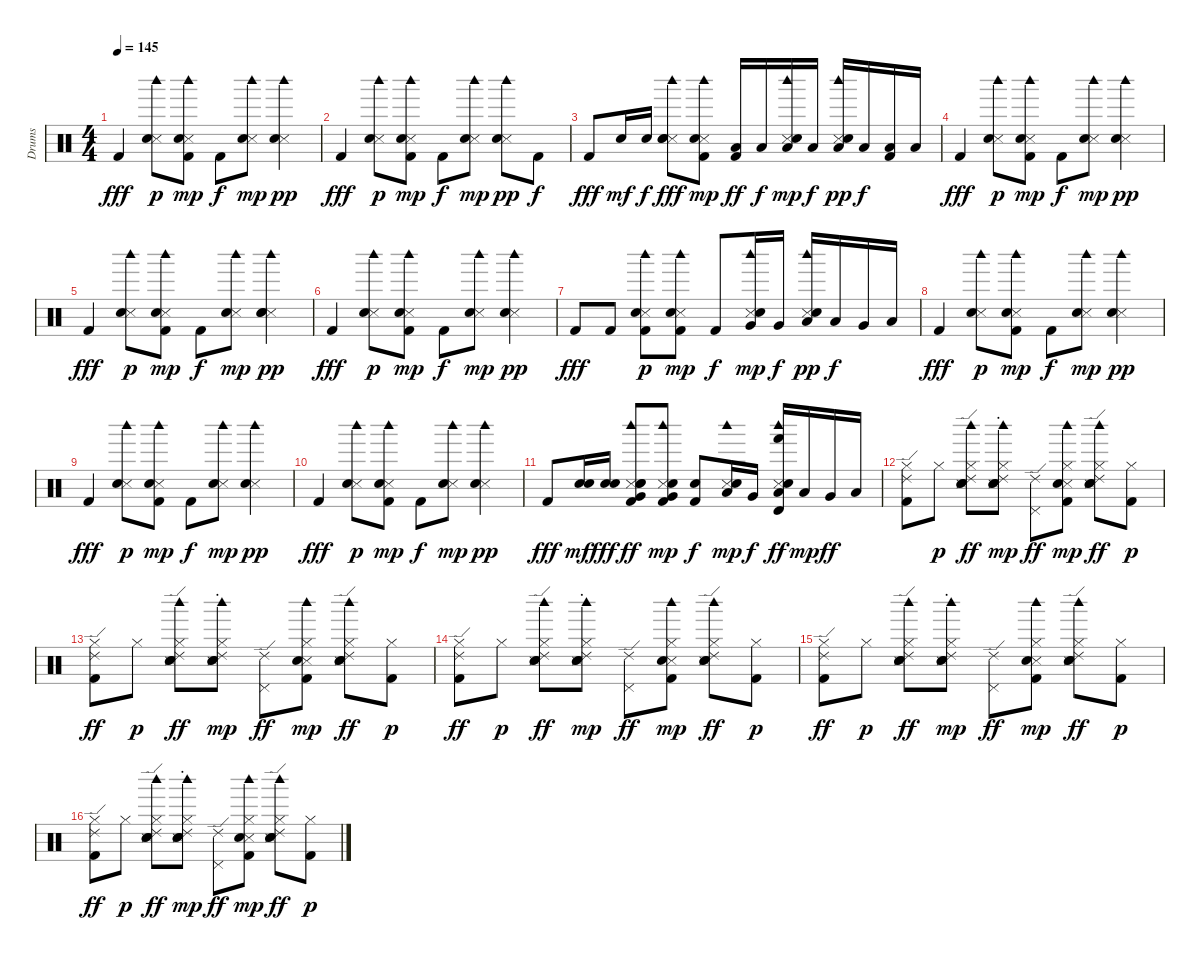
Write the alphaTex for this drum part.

\track ("Drums" "Drums") {instrument percussion}
\staff {score}
\articulation defaults
\ts (4 4)
\tempo 145
\clef neutral
\ks c "Kick (hit) 2".4{dy fff}
("Snare (side stick) 3" "Hand Clap (hit)" "Woodblock high (hit)").8{dy p} ("Kick (hit) 2" "Snare (side stick) 3" "Hand Clap (hit)" "Woodblock high (hit)").8{dy mp} "Kick (hit) 2".8{dy f} ("Snare (side stick) 3" "Hand Clap (hit)" "Woodblock high (hit)").8{dy mp} ("Snare (side stick) 3" "Hand Clap (hit)" "Woodblock high (hit)").4{dy pp} |
"Kick (hit) 2".4{dy fff} ("Snare (side stick) 3" "Hand Clap (hit)" "Woodblock high (hit)").8{dy p} ("Kick (hit) 2" "Snare (side stick) 3" "Hand Clap (hit)" "Woodblock high (hit)").8{dy mp} "Kick (hit) 2".8{dy f} ("Snare (side stick) 3" "Hand Clap (hit)" "Woodblock high (hit)").8{dy mp} ("Snare (side stick) 3" "Hand Clap (hit)" "Woodblock high (hit)").8{dy pp} "Kick (hit) 2".8{dy f} |
"Kick (hit) 2".8{dy fff} "Electric Snare (hit)".16{dy mf} "Electric Snare (hit)".16{dy f} ("Snare (side stick) 3" "Hand Clap (hit)" "Electric Snare (hit)" "Woodblock high (hit)").8{dy fff} ("Kick (hit) 2" "Snare (side stick) 3" "Hand Clap (hit)" "Woodblock high (hit)").8{dy mp} ("Kick (hit) 2" "Low Tom (hit)").16{dy ff} "Low Tom (hit)".16{dy f} ("Snare (side stick) 3" "Hand Clap (hit)" "Low Tom (hit)" "Woodblock high (hit)").16{dy mp} "Low Tom (hit)".16{dy f} ("Snare (side stick) 3" "Hand Clap (hit)" "Low Tom (hit)" "Woodblock high (hit)").16{dy pp} "Low Tom (hit)".16{dy f} ("Kick (hit) 2" "Low Tom (hit)").16 "Low Tom (hit)".16 |
"Kick (hit) 2".4{dy fff} ("Snare (side stick) 3" "Hand Clap (hit)" "Woodblock high (hit)").8{dy p} ("Kick (hit) 2" "Snare (side stick) 3" "Hand Clap (hit)" "Woodblock high (hit)").8{dy mp} "Kick (hit) 2".8{dy f} ("Snare (side stick) 3" "Hand Clap (hit)" "Woodblock high (hit)").8{dy mp} ("Snare (side stick) 3" "Hand Clap (hit)" "Woodblock high (hit)").4{dy pp} |
"Kick (hit) 2".4{dy fff} ("Snare (side stick) 3" "Hand Clap (hit)" "Woodblock high (hit)").8{dy p} ("Kick (hit) 2" "Snare (side stick) 3" "Hand Clap (hit)" "Woodblock high (hit)").8{dy mp} "Kick (hit) 2".8{dy f} ("Snare (side stick) 3" "Hand Clap (hit)" "Woodblock high (hit)").8{dy mp} ("Snare (side stick) 3" "Hand Clap (hit)" "Electric Snare (hit)" "Woodblock high (hit)").4{dy pp} |
"Kick (hit) 2".4{dy fff} ("Snare (side stick) 3" "Hand Clap (hit)" "Woodblock high (hit)").8{dy p} ("Kick (hit) 2" "Snare (side stick) 3" "Hand Clap (hit)" "Woodblock high (hit)").8{dy mp} "Kick (hit) 2".8{dy f} ("Snare (side stick) 3" "Hand Clap (hit)" "Woodblock high (hit)").8{dy mp} ("Snare (side stick) 3" "Hand Clap (hit)" "Woodblock high (hit)").4{dy pp} |
"Kick (hit) 2".8{dy fff} "Kick (hit) 2".8 ("Kick (hit) 2" "Snare (side stick) 3" "Hand Clap (hit)" "Woodblock high (hit)").8{dy p} ("Kick (hit) 2" "Snare (side stick) 3" "Hand Clap (hit)" "Woodblock high (hit)").8{dy mp} "Kick (hit) 2".8{dy f} ("Snare (side stick) 3" "Hand Clap (hit)" "Very Low Tom (hit)" "Woodblock high (hit)").16{dy mp} "Very Low Tom (hit)".16{dy f} ("Snare (side stick) 3" "Hand Clap (hit)" "Low Tom (hit)" "Woodblock high (hit)").16{dy pp} "Low Tom (hit)".16{dy f} "Very Low Tom (hit)".16 "Low Floor Tom (hit)".16 |
"Kick (hit) 2".4{dy fff} ("Snare (side stick) 3" "Hand Clap (hit)" "Woodblock high (hit)").8{dy p} ("Kick (hit) 2" "Snare (side stick) 3" "Hand Clap (hit)" "Woodblock high (hit)").8{dy mp} "Kick (hit) 2".8{dy f} ("Snare (side stick) 3" "Hand Clap (hit)" "Woodblock high (hit)").8{dy mp} ("Snare (side stick) 3" "Hand Clap (hit)" "Woodblock high (hit)").4{dy pp} |
"Kick (hit) 2".4{dy fff} ("Snare (side stick) 3" "Hand Clap (hit)" "Woodblock high (hit)").8{dy p} ("Kick (hit) 2" "Snare (side stick) 3" "Hand Clap (hit)" "Woodblock high (hit)").8{dy mp} "Kick (hit) 2".8{dy f} ("Snare (side stick) 3" "Hand Clap (hit)" "Woodblock high (hit)").8{dy mp} ("Snare (side stick) 3" "Hand Clap (hit)" "Woodblock high (hit)").4{dy pp} |
"Kick (hit) 2".4{dy fff} ("Snare (side stick) 3" "Hand Clap (hit)" "Woodblock high (hit)").8{dy p} ("Kick (hit) 2" "Snare (side stick) 3" "Hand Clap (hit)" "Woodblock high (hit)").8{dy mp} "Kick (hit) 2".8{dy f} ("Snare (side stick) 3" "Hand Clap (hit)" "Woodblock high (hit)").8{dy mp} ("Snare (side stick) 3" "Hand Clap (hit)" "Woodblock high (hit)").4{dy pp} |
"Kick (hit) 2".8{dy fff} ("Electric Snare (hit)" "Electric Snare (hit)").16{dy mf} ("Electric Snare (hit)" "Electric Snare (hit)").16{dy fff} ("Kick (hit) 2" "Snare (side stick) 3" "Hand Clap (hit)" "Electric Snare (hit)" "Very Low Tom (hit)" "Woodblock high (hit)").8{dy ff} ("Kick (hit) 2" "Snare (side stick) 3" "Hand Clap (hit)" "Very Low Tom (hit)" "Woodblock high (hit)").8{dy mp} ("Kick (hit) 2" "Electric Snare (hit)").8{dy f} ("Snare (side stick) 3" "Hand Clap (hit)" "Low Tom (hit)" "Woodblock high (hit)").16{dy mp} "Very Low Tom (hit)".16{dy f} ("Snare (side stick) 3" "Hand Clap (hit)" "Low Floor Tom (hit)" "Hand (hit)" "Timbale high (hit)" "Woodblock high (hit)").16{dy ff} "Low Floor Tom (hit)".16{dy mp} "Very Low Tom (hit)".16{dy ff} "Low Floor Tom (hit)".16 |
("Kick (hit) 2" "Hi-Hat (closed)" "Ride (edge) 2").8 "Hi-Hat (closed)".8{dy p} ("Snare (side stick) 3" "Hand Clap (hit)" "Electric Snare (hit)" "Hi-Hat (closed)" "Ride (edge) 2" "Woodblock high (hit)").8{dy ff} ("Ride (choke) 2" "Snare (side stick) 3" "Hand Clap (hit)" "Electric Snare (hit)" "Hi-Hat (closed)" "Woodblock high (hit)").8{dy mp} ("Pedal Hi-Hat (hit)" "Ride (edge) 2").8{dy ff} ("Kick (hit) 2" "Snare (side stick) 3" "Hand Clap (hit)" "Hi-Hat (closed)" "Woodblock high (hit)").8{dy mp} ("Snare (side stick) 3" "Hand Clap (hit)" "Electric Snare (hit)" "Hi-Hat (closed)" "Ride (edge) 2" "Woodblock high (hit)").8{dy ff} ("Kick (hit) 2" "Hi-Hat (closed)").8{dy p} |
("Kick (hit) 2" "Hi-Hat (closed)" "Ride (edge) 2").8{dy ff} "Hi-Hat (closed)".8{dy p} ("Snare (side stick) 3" "Hand Clap (hit)" "Electric Snare (hit)" "Hi-Hat (closed)" "Ride (edge) 2" "Woodblock high (hit)").8{dy ff} ("Ride (choke) 2" "Snare (side stick) 3" "Hand Clap (hit)" "Electric Snare (hit)" "Hi-Hat (closed)" "Woodblock high (hit)").8{dy mp} ("Pedal Hi-Hat (hit)" "Ride (edge) 2").8{dy ff} ("Kick (hit) 2" "Snare (side stick) 3" "Hand Clap (hit)" "Hi-Hat (closed)" "Woodblock high (hit)").8{dy mp} ("Snare (side stick) 3" "Hand Clap (hit)" "Electric Snare (hit)" "Hi-Hat (closed)" "Ride (edge) 2" "Woodblock high (hit)").8{dy ff} ("Kick (hit) 2" "Hi-Hat (closed)").8{dy p} |
("Kick (hit) 2" "Hi-Hat (closed)" "Ride (edge) 2").8{dy ff} "Hi-Hat (closed)".8{dy p} ("Snare (side stick) 3" "Hand Clap (hit)" "Electric Snare (hit)" "Hi-Hat (closed)" "Ride (edge) 2" "Woodblock high (hit)").8{dy ff} ("Ride (choke) 2" "Snare (side stick) 3" "Hand Clap (hit)" "Electric Snare (hit)" "Hi-Hat (closed)" "Woodblock high (hit)").8{dy mp} ("Pedal Hi-Hat (hit)" "Ride (edge) 2").8{dy ff} ("Kick (hit) 2" "Snare (side stick) 3" "Hand Clap (hit)" "Hi-Hat (closed)" "Woodblock high (hit)").8{dy mp} ("Snare (side stick) 3" "Hand Clap (hit)" "Electric Snare (hit)" "Hi-Hat (closed)" "Ride (edge) 2" "Woodblock high (hit)").8{dy ff} ("Kick (hit) 2" "Hi-Hat (closed)").8{dy p} |
("Kick (hit) 2" "Hi-Hat (closed)" "Ride (edge) 2").8{dy ff} "Hi-Hat (closed)".8{dy p} ("Snare (side stick) 3" "Hand Clap (hit)" "Electric Snare (hit)" "Hi-Hat (closed)" "Ride (edge) 2" "Woodblock high (hit)").8{dy ff} ("Ride (choke) 2" "Snare (side stick) 3" "Hand Clap (hit)" "Electric Snare (hit)" "Hi-Hat (closed)" "Woodblock high (hit)").8{dy mp} ("Pedal Hi-Hat (hit)" "Ride (edge) 2").8{dy ff} ("Kick (hit) 2" "Snare (side stick) 3" "Hand Clap (hit)" "Hi-Hat (closed)" "Woodblock high (hit)").8{dy mp} ("Snare (side stick) 3" "Hand Clap (hit)" "Electric Snare (hit)" "Hi-Hat (closed)" "Ride (edge) 2" "Woodblock high (hit)").8{dy ff} ("Kick (hit) 2" "Hi-Hat (closed)").8{dy p} |
("Kick (hit) 2" "Hi-Hat (closed)" "Ride (edge) 2").8{dy ff} "Hi-Hat (closed)".8{dy p} ("Snare (side stick) 3" "Hand Clap (hit)" "Electric Snare (hit)" "Hi-Hat (closed)" "Ride (edge) 2" "Woodblock high (hit)").8{dy ff} ("Ride (choke) 2" "Snare (side stick) 3" "Hand Clap (hit)" "Electric Snare (hit)" "Hi-Hat (closed)" "Woodblock high (hit)").8{dy mp} ("Pedal Hi-Hat (hit)" "Ride (edge) 2").8{dy ff} ("Kick (hit) 2" "Snare (side stick) 3" "Hand Clap (hit)" "Hi-Hat (closed)" "Woodblock high (hit)").8{dy mp} ("Snare (side stick) 3" "Hand Clap (hit)" "Electric Snare (hit)" "Hi-Hat (closed)" "Ride (edge) 2" "Woodblock high (hit)").8{dy ff} ("Kick (hit) 2" "Hi-Hat (closed)").8{dy p}
